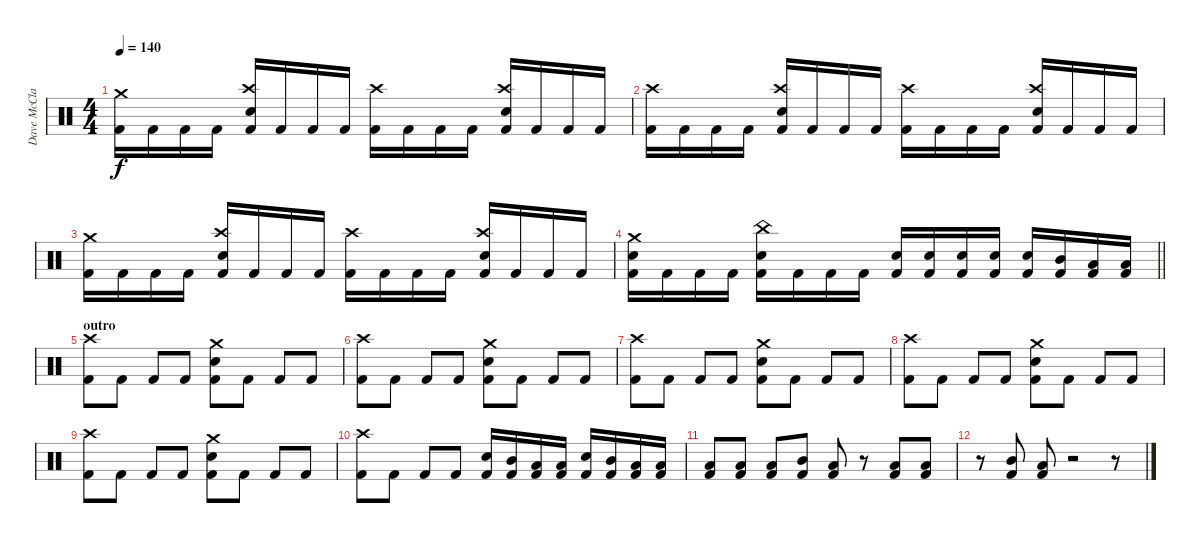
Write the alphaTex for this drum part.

\track ("Dave McClain" "Dave McCla") {solo instrument percussion}
\staff {score}
\articulation defaults
\ts (4 4)
\tempo 140
\clef neutral
\ks c
("Crash medium (hit)" "Kick (hit) 2").16{dy f} "Kick (hit) 2".16 "Kick (hit) 2".16 "Kick (hit) 2".16 ("Crash high (hit)" "Electric Snare (hit)" "Kick (hit) 2").16 "Kick (hit) 2".16 "Kick (hit) 2".16 "Kick (hit) 2".16 ("Crash high (hit)" "Kick (hit) 2").16 "Kick (hit) 2".16 "Kick (hit) 2".16 "Kick (hit) 2".16 ("Crash high (hit)" "Electric Snare (hit)" "Kick (hit) 2").16 "Kick (hit) 2".16 "Kick (hit) 2".16 "Kick (hit) 2".16 |
("Crash high (hit)" "Kick (hit) 2").16 "Kick (hit) 2".16 "Kick (hit) 2".16 "Kick (hit) 2".16 ("Crash high (hit)" "Electric Snare (hit)" "Kick (hit) 2").16 "Kick (hit) 2".16 "Kick (hit) 2".16 "Kick (hit) 2".16 ("Crash high (hit)" "Kick (hit) 2").16 "Kick (hit) 2".16 "Kick (hit) 2".16 "Kick (hit) 2".16 ("Crash high (hit)" "Electric Snare (hit)" "Kick (hit) 2").16 "Kick (hit) 2".16 "Kick (hit) 2".16 "Kick (hit) 2".16 |
("Crash medium (hit)" "Kick (hit) 2").16 "Kick (hit) 2".16 "Kick (hit) 2".16 "Kick (hit) 2".16 ("Crash high (hit)" "Electric Snare (hit)" "Kick (hit) 2").16 "Kick (hit) 2".16 "Kick (hit) 2".16 "Kick (hit) 2".16 ("Crash high (hit)" "Kick (hit) 2").16 "Kick (hit) 2".16 "Kick (hit) 2".16 "Kick (hit) 2".16 ("Crash high (hit)" "Electric Snare (hit)" "Kick (hit) 2").16 "Kick (hit) 2".16 "Kick (hit) 2".16 "Kick (hit) 2".16 |
\barLineRight lightlight
("Crash medium (hit)" "Electric Snare (hit)" "Kick (hit) 2").16 "Kick (hit) 2".16 "Kick (hit) 2".16 "Kick (hit) 2".16 ("China (hit)" "Electric Snare (hit)" "Kick (hit) 2").16 "Kick (hit) 2".16 "Kick (hit) 2".16 "Kick (hit) 2".16 ("Electric Snare (hit)" "Kick (hit) 2").16 ("Electric Snare (hit)" "Kick (hit) 2").16 ("Electric Snare (hit)" "Kick (hit) 2").16 ("Electric Snare (hit)" "Kick (hit) 2").16 ("Electric Snare (hit)" "Kick (hit) 2").16 ("Mid Tom (hit)" "Kick (hit) 2").16 ("Low Tom (hit)" "Kick (hit) 2").16 ("Low Floor Tom (hit)" "Kick (hit) 2").16 |
\section ("" "outro")
("Crash high (hit)" "Kick (hit) 2").8 "Kick (hit) 2".8 "Kick (hit) 2".8 "Kick (hit) 2".8 ("Crash medium (hit)" "Electric Snare (hit)" "Kick (hit) 2").8 "Kick (hit) 2".8 "Kick (hit) 2".8 "Kick (hit) 2".8 |
("Crash high (hit)" "Kick (hit) 2").8 "Kick (hit) 2".8 "Kick (hit) 2".8 "Kick (hit) 2".8 ("Crash medium (hit)" "Electric Snare (hit)" "Kick (hit) 2").8 "Kick (hit) 2".8 "Kick (hit) 2".8 "Kick (hit) 2".8 |
("Crash high (hit)" "Kick (hit) 2").8 "Kick (hit) 2".8 "Kick (hit) 2".8 "Kick (hit) 2".8 ("Crash medium (hit)" "Electric Snare (hit)" "Kick (hit) 2").8 "Kick (hit) 2".8 "Kick (hit) 2".8 "Kick (hit) 2".8 |
("Crash high (hit)" "Kick (hit) 2").8 "Kick (hit) 2".8 "Kick (hit) 2".8 "Kick (hit) 2".8 ("Crash medium (hit)" "Electric Snare (hit)" "Kick (hit) 2").8 "Kick (hit) 2".8 "Kick (hit) 2".8 "Kick (hit) 2".8 |
("Crash high (hit)" "Kick (hit) 2").8 "Kick (hit) 2".8 "Kick (hit) 2".8 "Kick (hit) 2".8 ("Crash medium (hit)" "Electric Snare (hit)" "Kick (hit) 2").8 "Kick (hit) 2".8 "Kick (hit) 2".8 "Kick (hit) 2".8 |
("Crash high (hit)" "Kick (hit) 2").8 "Kick (hit) 2".8 "Kick (hit) 2".8 "Kick (hit) 2".8 ("Electric Snare (hit)" "Kick (hit) 2").16 ("Mid Tom (hit)" "Kick (hit) 2").16 ("Low Tom (hit)" "Kick (hit) 2").16 ("Low Floor Tom (hit)" "Kick (hit) 2").16 ("Electric Snare (hit)" "Kick (hit) 2").16 ("Mid Tom (hit)" "Kick (hit) 2").16 ("Low Tom (hit)" "Kick (hit) 2").16 ("Low Floor Tom (hit)" "Kick (hit) 2").16 |
("Low Floor Tom (hit)" "Kick (hit) 2").8 ("Low Tom (hit)" "Kick (hit) 2").8 ("Low Floor Tom (hit)" "Kick (hit) 2").8 ("Mid Tom (hit)" "Kick (hit) 2").8 ("Low Floor Tom (hit)" "Kick (hit) 2").8 r.8 ("Low Tom (hit)" "Kick (hit) 2").8 ("Low Floor Tom (hit)" "Kick (hit) 2").8 |
r.8 ("Mid Tom (hit)" "Kick (hit) 2").8 ("Low Floor Tom (hit)" "Kick (hit) 2").8 r.2 r.8
